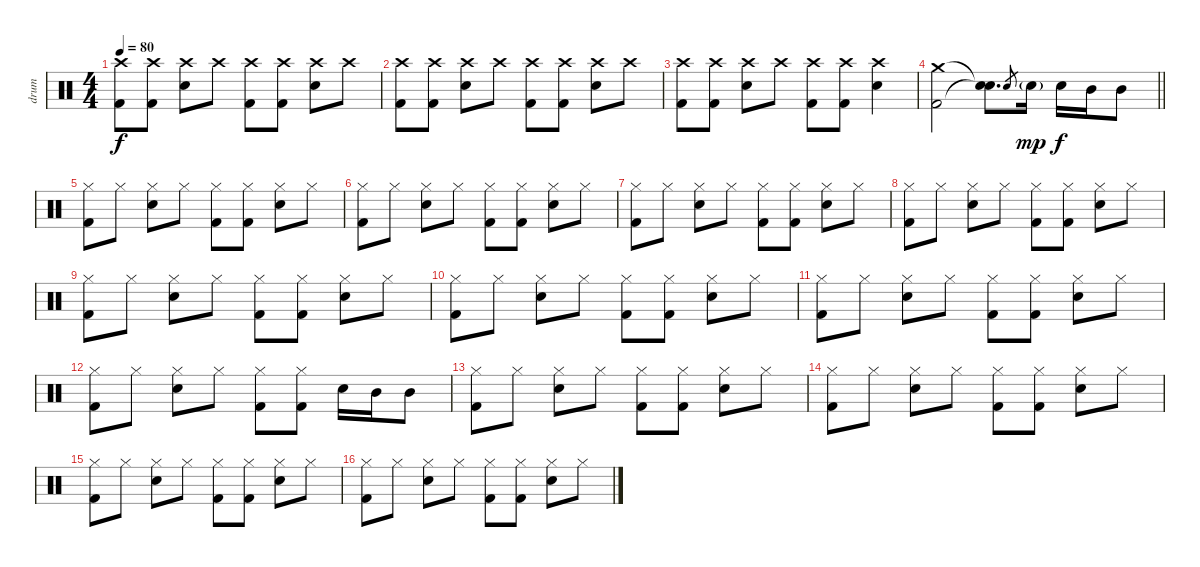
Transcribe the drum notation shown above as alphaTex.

\track ("drum" "drum") {instrument percussion}
\staff {score}
\articulation defaults
\ts (4 4)
\tempo 80
\clef neutral
\ks c
("Crash high (hit)" "Kick (hit) 2").8{dy f} ("Crash high (hit)" "Kick (hit) 2").8 ("Crash high (hit)" "Snare (hit) 2").8 "Crash high (hit)".8 ("Crash high (hit)" "Kick (hit) 2").8 ("Crash high (hit)" "Kick (hit) 2").8 ("Crash high (hit)" "Snare (hit) 2").8 "Crash high (hit)".8 |
("Crash high (hit)" "Kick (hit) 2").8 ("Crash high (hit)" "Kick (hit) 2").8 ("Crash high (hit)" "Snare (hit) 2").8 "Crash high (hit)".8 ("Crash high (hit)" "Kick (hit) 2").8 ("Crash high (hit)" "Kick (hit) 2").8 ("Crash high (hit)" "Snare (hit) 2").8 "Crash high (hit)".8 |
("Crash high (hit)" "Kick (hit) 2").8 ("Crash high (hit)" "Kick (hit) 2").8 ("Crash high (hit)" "Snare (hit) 2").8 "Crash high (hit)".8 ("Crash high (hit)" "Kick (hit) 2").8 ("Crash high (hit)" "Kick (hit) 2").8 ("Crash high (hit)" "Snare (hit) 2").4 |
\barLineRight lightlight
("Crash medium (hit)" "Kick (hit) 2").2 ("Snare (hit)"{t} "Snare (hit)"{t}).8{d} "Snare (hit) 2".8{gr} "Snare (hit) 2"{g}.16{dy mp} "Snare (hit) 2".16{dy f} "Mid Tom (hit)".16 "Mid Tom (hit)".8 |
\section ("" "")
("Hi-Hat (closed)" "Kick (hit) 2").8 "Hi-Hat (closed)".8 ("Hi-Hat (closed)" "Snare (hit) 2").8 "Hi-Hat (closed)".8 ("Hi-Hat (closed)" "Kick (hit) 2").8 ("Hi-Hat (closed)" "Kick (hit) 2").8 ("Hi-Hat (closed)" "Snare (hit) 2").8 "Hi-Hat (closed)".8 |
("Hi-Hat (closed)" "Kick (hit) 2").8 "Hi-Hat (closed)".8 ("Hi-Hat (closed)" "Snare (hit) 2").8 "Hi-Hat (closed)".8 ("Hi-Hat (closed)" "Kick (hit) 2").8 ("Hi-Hat (closed)" "Kick (hit) 2").8 ("Hi-Hat (closed)" "Snare (hit) 2").8 "Hi-Hat (closed)".8 |
("Hi-Hat (closed)" "Kick (hit) 2").8 "Hi-Hat (closed)".8 ("Hi-Hat (closed)" "Snare (hit) 2").8 "Hi-Hat (closed)".8 ("Hi-Hat (closed)" "Kick (hit) 2").8 ("Hi-Hat (closed)" "Kick (hit) 2").8 ("Hi-Hat (closed)" "Snare (hit) 2").8 "Hi-Hat (closed)".8 |
("Hi-Hat (closed)" "Kick (hit) 2").8 "Hi-Hat (closed)".8 ("Hi-Hat (closed)" "Snare (hit) 2").8 "Hi-Hat (closed)".8 ("Hi-Hat (closed)" "Kick (hit) 2").8 ("Hi-Hat (closed)" "Kick (hit) 2").8 ("Hi-Hat (closed)" "Snare (hit) 2").8 "Hi-Hat (closed)".8 |
("Hi-Hat (closed)" "Kick (hit) 2").8 "Hi-Hat (closed)".8 ("Hi-Hat (closed)" "Snare (hit) 2").8 "Hi-Hat (closed)".8 ("Hi-Hat (closed)" "Kick (hit) 2").8 ("Hi-Hat (closed)" "Kick (hit) 2").8 ("Hi-Hat (closed)" "Snare (hit) 2").8 "Hi-Hat (closed)".8 |
("Hi-Hat (closed)" "Kick (hit) 2").8 "Hi-Hat (closed)".8 ("Hi-Hat (closed)" "Snare (hit) 2").8 "Hi-Hat (closed)".8 ("Hi-Hat (closed)" "Kick (hit) 2").8 ("Hi-Hat (closed)" "Kick (hit) 2").8 ("Hi-Hat (closed)" "Snare (hit) 2").8 "Hi-Hat (closed)".8 |
("Hi-Hat (closed)" "Kick (hit) 2").8 "Hi-Hat (closed)".8 ("Hi-Hat (closed)" "Snare (hit) 2").8 "Hi-Hat (closed)".8 ("Hi-Hat (closed)" "Kick (hit) 2").8 ("Hi-Hat (closed)" "Kick (hit) 2").8 ("Hi-Hat (closed)" "Snare (hit) 2").8 "Hi-Hat (closed)".8 |
("Hi-Hat (closed)" "Kick (hit) 2").8 "Hi-Hat (closed)".8 ("Hi-Hat (closed)" "Snare (hit) 2").8 "Hi-Hat (closed)".8 ("Hi-Hat (closed)" "Kick (hit) 2").8 ("Hi-Hat (closed)" "Kick (hit) 2").8 "Snare (hit) 2".16 "Mid Tom (hit)".16 "Mid Tom (hit)".8 |
("Hi-Hat (closed)" "Kick (hit) 2").8 "Hi-Hat (closed)".8 ("Hi-Hat (closed)" "Snare (hit) 2").8 "Hi-Hat (closed)".8 ("Hi-Hat (closed)" "Kick (hit) 2").8 ("Hi-Hat (closed)" "Kick (hit) 2").8 ("Hi-Hat (closed)" "Snare (hit) 2").8 "Hi-Hat (closed)".8 |
("Hi-Hat (closed)" "Kick (hit) 2").8 "Hi-Hat (closed)".8 ("Hi-Hat (closed)" "Snare (hit) 2").8 "Hi-Hat (closed)".8 ("Hi-Hat (closed)" "Kick (hit) 2").8 ("Hi-Hat (closed)" "Kick (hit) 2").8 ("Hi-Hat (closed)" "Snare (hit) 2").8 "Hi-Hat (closed)".8 |
("Hi-Hat (closed)" "Kick (hit) 2").8 "Hi-Hat (closed)".8 ("Hi-Hat (closed)" "Snare (hit) 2").8 "Hi-Hat (closed)".8 ("Hi-Hat (closed)" "Kick (hit) 2").8 ("Hi-Hat (closed)" "Kick (hit) 2").8 ("Hi-Hat (closed)" "Snare (hit) 2").8 "Hi-Hat (closed)".8 |
("Hi-Hat (closed)" "Kick (hit) 2").8 "Hi-Hat (closed)".8 ("Hi-Hat (closed)" "Snare (hit) 2").8 "Hi-Hat (closed)".8 ("Hi-Hat (closed)" "Kick (hit) 2").8 ("Hi-Hat (closed)" "Kick (hit) 2").8 ("Hi-Hat (closed)" "Snare (hit) 2").8 "Hi-Hat (closed)".8
